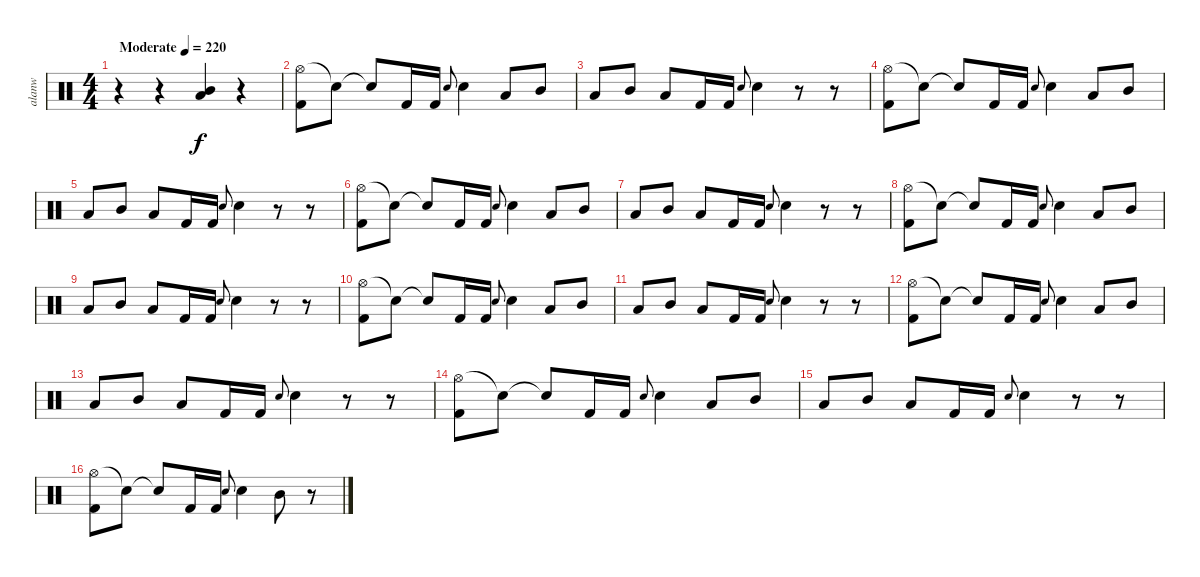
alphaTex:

\track ("alanw" "alanw") {instrument percussion}
\staff {score}
\articulation defaults
\ts (4 4)
\tempo (220 "Moderate")
\clef neutral
\ks c
r.4{dy f} r.4 ("Mid Tom (hit)" "Low Tom (hit)").4 r.4 |
("Hi-Hat (open)" "Kick (hit) 2").8 "Snare (hit)"{t}.8 "Snare (hit)"{t}.8 "Kick (hit) 2".16 "Kick (hit) 2".16 "Electric Snare (hit)".8{gr onbeat} "Electric Snare (hit)".4 "Low Tom (hit)".8 "Mid Tom (hit)".8 |
"Low Tom (hit)".8 "Mid Tom (hit)".8 "Low Tom (hit)".8 "Kick (hit) 2".16 "Kick (hit) 2".16 "Electric Snare (hit)".8{gr onbeat} "Electric Snare (hit)".4 r.8 r.8 |
("Hi-Hat (open)" "Kick (hit) 2").8 "Snare (hit)"{t}.8 "Snare (hit)"{t}.8 "Kick (hit) 2".16 "Kick (hit) 2".16 "Electric Snare (hit)".8{gr onbeat} "Electric Snare (hit)".4 "Low Tom (hit)".8 "Mid Tom (hit)".8 |
"Low Tom (hit)".8 "Mid Tom (hit)".8 "Low Tom (hit)".8 "Kick (hit) 2".16 "Kick (hit) 2".16 "Electric Snare (hit)".8{gr onbeat} "Electric Snare (hit)".4 r.8 r.8 |
("Hi-Hat (open)" "Kick (hit) 2").8 "Snare (hit)"{t}.8 "Snare (hit)"{t}.8 "Kick (hit) 2".16 "Kick (hit) 2".16 "Electric Snare (hit)".8{gr onbeat} "Electric Snare (hit)".4 "Low Tom (hit)".8 "Mid Tom (hit)".8 |
"Low Tom (hit)".8 "Mid Tom (hit)".8 "Low Tom (hit)".8 "Kick (hit) 2".16 "Kick (hit) 2".16 "Electric Snare (hit)".8{gr onbeat} "Electric Snare (hit)".4 r.8 r.8 |
("Hi-Hat (open)" "Kick (hit) 2").8 "Snare (hit)"{t}.8 "Snare (hit)"{t}.8 "Kick (hit) 2".16 "Kick (hit) 2".16 "Electric Snare (hit)".8{gr onbeat} "Electric Snare (hit)".4 "Low Tom (hit)".8 "Mid Tom (hit)".8 |
"Low Tom (hit)".8 "Mid Tom (hit)".8 "Low Tom (hit)".8 "Kick (hit) 2".16 "Kick (hit) 2".16 "Electric Snare (hit)".8{gr onbeat} "Electric Snare (hit)".4 r.8 r.8 |
("Hi-Hat (open)" "Kick (hit) 2").8 "Snare (hit)"{t}.8 "Snare (hit)"{t}.8 "Kick (hit) 2".16 "Kick (hit) 2".16 "Electric Snare (hit)".8{gr onbeat} "Electric Snare (hit)".4 "Low Tom (hit)".8 "Mid Tom (hit)".8 |
"Low Tom (hit)".8 "Mid Tom (hit)".8 "Low Tom (hit)".8 "Kick (hit) 2".16 "Kick (hit) 2".16 "Electric Snare (hit)".8{gr onbeat} "Electric Snare (hit)".4 r.8 r.8 |
("Hi-Hat (open)" "Kick (hit) 2").8 "Snare (hit)"{t}.8 "Snare (hit)"{t}.8 "Kick (hit) 2".16 "Kick (hit) 2".16 "Electric Snare (hit)".8{gr onbeat} "Electric Snare (hit)".4 "Low Tom (hit)".8 "Mid Tom (hit)".8 |
"Low Tom (hit)".8 "Mid Tom (hit)".8 "Low Tom (hit)".8 "Kick (hit) 2".16 "Kick (hit) 2".16 "Electric Snare (hit)".8{gr onbeat} "Electric Snare (hit)".4 r.8 r.8 |
("Hi-Hat (open)" "Kick (hit) 2").8 "Snare (hit)"{t}.8 "Snare (hit)"{t}.8 "Kick (hit) 2".16 "Kick (hit) 2".16 "Electric Snare (hit)".8{gr onbeat} "Electric Snare (hit)".4 "Low Tom (hit)".8 "Mid Tom (hit)".8 |
"Low Tom (hit)".8 "Mid Tom (hit)".8 "Low Tom (hit)".8 "Kick (hit) 2".16 "Kick (hit) 2".16 "Electric Snare (hit)".8{gr onbeat} "Electric Snare (hit)".4 r.8 r.8 |
("Hi-Hat (open)" "Kick (hit) 2").8 "Snare (hit)"{t}.8 "Snare (hit)"{t}.8 "Kick (hit) 2".16 "Kick (hit) 2".16 "Electric Snare (hit)".8{gr onbeat} "Electric Snare (hit)".4 "Mid Tom (hit)".8 r.8
